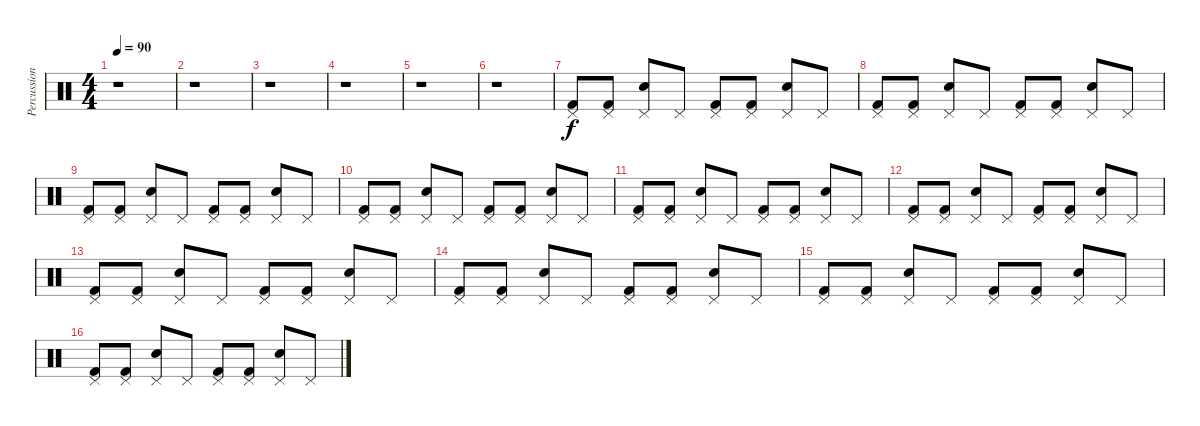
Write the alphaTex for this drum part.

\track ("Percussions" "Percussion") {instrument percussion}
\staff {score}
\articulation defaults
\ts (4 4)
\tempo 90
\clef neutral
\ks c
r.1{dy f} |
r.1 |
r.1 |
r.1 |
r.1 |
r.1 |
("Pedal Hi-Hat (hit)" "Kick (hit) 2").8 ("Pedal Hi-Hat (hit)" "Kick (hit) 2").8 ("Pedal Hi-Hat (hit)" "Electric Snare (hit)").8 "Pedal Hi-Hat (hit)".8 ("Pedal Hi-Hat (hit)" "Kick (hit) 2").8 ("Pedal Hi-Hat (hit)" "Kick (hit) 2").8 ("Pedal Hi-Hat (hit)" "Electric Snare (hit)").8 "Pedal Hi-Hat (hit)".8 |
("Pedal Hi-Hat (hit)" "Kick (hit) 2").8 ("Pedal Hi-Hat (hit)" "Kick (hit) 2").8 ("Pedal Hi-Hat (hit)" "Electric Snare (hit)").8 "Pedal Hi-Hat (hit)".8 ("Pedal Hi-Hat (hit)" "Kick (hit) 2").8 ("Pedal Hi-Hat (hit)" "Kick (hit) 2").8 ("Pedal Hi-Hat (hit)" "Electric Snare (hit)").8 "Pedal Hi-Hat (hit)".8 |
("Pedal Hi-Hat (hit)" "Kick (hit) 2").8 ("Pedal Hi-Hat (hit)" "Kick (hit) 2").8 ("Pedal Hi-Hat (hit)" "Electric Snare (hit)").8 "Pedal Hi-Hat (hit)".8 ("Pedal Hi-Hat (hit)" "Kick (hit) 2").8 ("Pedal Hi-Hat (hit)" "Kick (hit) 2").8 ("Pedal Hi-Hat (hit)" "Electric Snare (hit)").8 "Pedal Hi-Hat (hit)".8 |
("Pedal Hi-Hat (hit)" "Kick (hit) 2").8 ("Pedal Hi-Hat (hit)" "Kick (hit) 2").8 ("Pedal Hi-Hat (hit)" "Electric Snare (hit)").8 "Pedal Hi-Hat (hit)".8 ("Pedal Hi-Hat (hit)" "Kick (hit) 2").8 ("Pedal Hi-Hat (hit)" "Kick (hit) 2").8 ("Pedal Hi-Hat (hit)" "Electric Snare (hit)").8 "Pedal Hi-Hat (hit)".8 |
("Pedal Hi-Hat (hit)" "Kick (hit) 2").8 ("Pedal Hi-Hat (hit)" "Kick (hit) 2").8 ("Pedal Hi-Hat (hit)" "Electric Snare (hit)").8 "Pedal Hi-Hat (hit)".8 ("Pedal Hi-Hat (hit)" "Kick (hit) 2").8 ("Pedal Hi-Hat (hit)" "Kick (hit) 2").8 ("Pedal Hi-Hat (hit)" "Electric Snare (hit)").8 "Pedal Hi-Hat (hit)".8 |
("Pedal Hi-Hat (hit)" "Kick (hit) 2").8 ("Pedal Hi-Hat (hit)" "Kick (hit) 2").8 ("Pedal Hi-Hat (hit)" "Electric Snare (hit)").8 "Pedal Hi-Hat (hit)".8 ("Pedal Hi-Hat (hit)" "Kick (hit) 2").8 ("Pedal Hi-Hat (hit)" "Kick (hit) 2").8 ("Pedal Hi-Hat (hit)" "Electric Snare (hit)").8 "Pedal Hi-Hat (hit)".8 |
("Pedal Hi-Hat (hit)" "Kick (hit) 2").8 ("Pedal Hi-Hat (hit)" "Kick (hit) 2").8 ("Pedal Hi-Hat (hit)" "Electric Snare (hit)").8 "Pedal Hi-Hat (hit)".8 ("Pedal Hi-Hat (hit)" "Kick (hit) 2").8 ("Pedal Hi-Hat (hit)" "Kick (hit) 2").8 ("Pedal Hi-Hat (hit)" "Electric Snare (hit)").8 "Pedal Hi-Hat (hit)".8 |
("Pedal Hi-Hat (hit)" "Kick (hit) 2").8 ("Pedal Hi-Hat (hit)" "Kick (hit) 2").8 ("Pedal Hi-Hat (hit)" "Electric Snare (hit)").8 "Pedal Hi-Hat (hit)".8 ("Pedal Hi-Hat (hit)" "Kick (hit) 2").8 ("Pedal Hi-Hat (hit)" "Kick (hit) 2").8 ("Pedal Hi-Hat (hit)" "Electric Snare (hit)").8 "Pedal Hi-Hat (hit)".8 |
("Pedal Hi-Hat (hit)" "Kick (hit) 2").8 ("Pedal Hi-Hat (hit)" "Kick (hit) 2").8 ("Pedal Hi-Hat (hit)" "Electric Snare (hit)").8 "Pedal Hi-Hat (hit)".8 ("Pedal Hi-Hat (hit)" "Kick (hit) 2").8 ("Pedal Hi-Hat (hit)" "Kick (hit) 2").8 ("Pedal Hi-Hat (hit)" "Electric Snare (hit)").8 "Pedal Hi-Hat (hit)".8 |
("Pedal Hi-Hat (hit)" "Kick (hit) 2").8 ("Pedal Hi-Hat (hit)" "Kick (hit) 2").8 ("Pedal Hi-Hat (hit)" "Electric Snare (hit)").8 "Pedal Hi-Hat (hit)".8 ("Pedal Hi-Hat (hit)" "Kick (hit) 2").8 ("Pedal Hi-Hat (hit)" "Kick (hit) 2").8 ("Pedal Hi-Hat (hit)" "Electric Snare (hit)").8 "Pedal Hi-Hat (hit)".8
